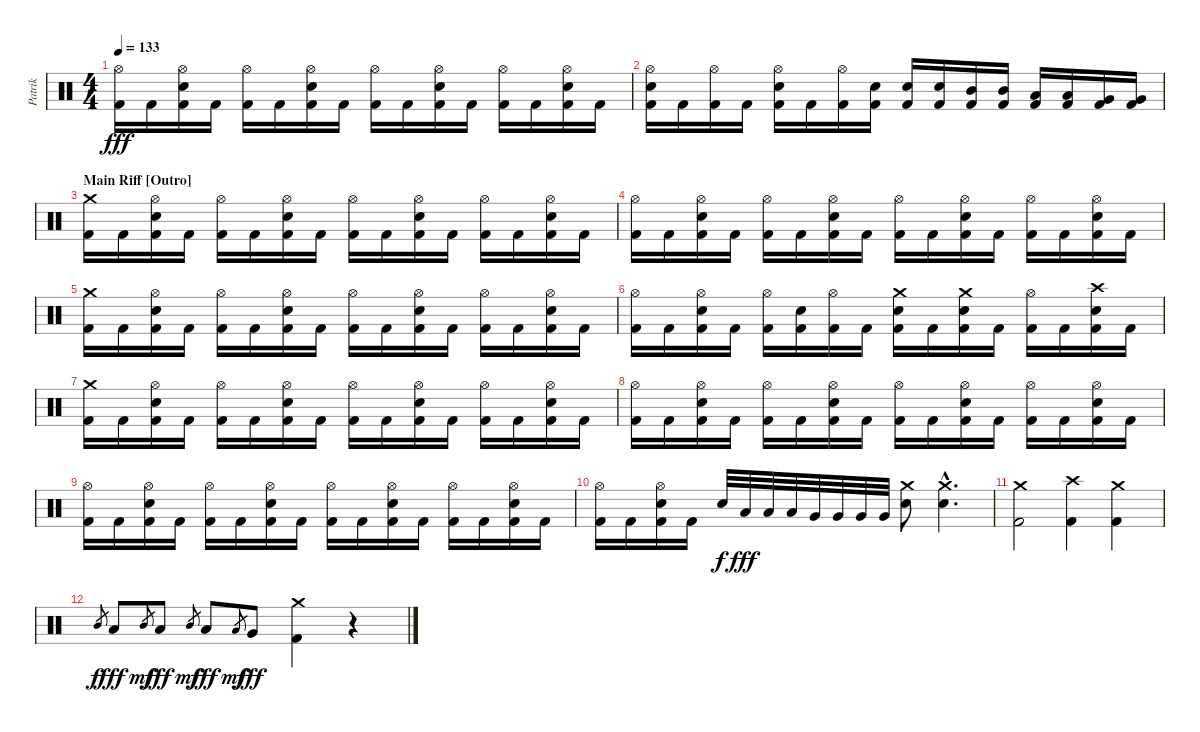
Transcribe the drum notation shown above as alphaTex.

\track ("Patrik" "Patrik") {instrument percussion}
\staff {score}
\articulation defaults
\ts (4 4)
\tempo 133
\clef neutral
\ks c
("Hi-Hat (open)" "Kick (hit) 2").16{dy fff} "Kick (hit) 2".16 ("Hi-Hat (open)" "Electric Snare (hit)" "Kick (hit) 2").16 "Kick (hit) 2".16 ("Hi-Hat (open)" "Kick (hit) 2").16 "Kick (hit) 2".16 ("Hi-Hat (open)" "Electric Snare (hit)" "Kick (hit) 2").16 "Kick (hit) 2".16 ("Hi-Hat (open)" "Kick (hit) 2").16 "Kick (hit) 2".16 ("Hi-Hat (open)" "Electric Snare (hit)" "Kick (hit) 2").16 "Kick (hit) 2".16 ("Hi-Hat (open)" "Kick (hit) 2").16 "Kick (hit) 2".16 ("Hi-Hat (open)" "Electric Snare (hit)" "Kick (hit) 2").16 "Kick (hit) 2".16 |
("Hi-Hat (open)" "Electric Snare (hit)" "Kick (hit) 2").16 "Kick (hit) 2".16 ("Hi-Hat (open)" "Kick (hit) 2").16 "Kick (hit) 2".16 ("Hi-Hat (open)" "Electric Snare (hit)" "Kick (hit) 2").16 "Kick (hit) 2".16 ("Hi-Hat (open)" "Kick (hit) 2").16 ("Electric Snare (hit)" "Kick (hit) 2").16 ("Electric Snare (hit)" "Kick (hit) 2").16 ("Electric Snare (hit)" "Kick (hit) 2").16 ("Mid Tom (hit)" "Kick (hit) 2").16 ("Mid Tom (hit)" "Kick (hit) 2").16 ("Low Tom (hit)" "Kick (hit) 2").16 ("Low Tom (hit)" "Kick (hit) 2").16 ("Very Low Tom (hit)" "Kick (hit) 2").16 ("Very Low Tom (hit)" "Kick (hit) 2").16 |
\section ("" "Main Riff [Outro]")
("Crash medium (hit)" "Kick (hit) 2").16 "Kick (hit) 2".16 ("Hi-Hat (open)" "Electric Snare (hit)" "Kick (hit) 2").16 "Kick (hit) 2".16 ("Hi-Hat (open)" "Kick (hit) 2").16 "Kick (hit) 2".16 ("Hi-Hat (open)" "Electric Snare (hit)" "Kick (hit) 2").16 "Kick (hit) 2".16 ("Hi-Hat (open)" "Kick (hit) 2").16 "Kick (hit) 2".16 ("Hi-Hat (open)" "Electric Snare (hit)" "Kick (hit) 2").16 "Kick (hit) 2".16 ("Hi-Hat (open)" "Kick (hit) 2").16 "Kick (hit) 2".16 ("Hi-Hat (open)" "Electric Snare (hit)" "Kick (hit) 2").16 "Kick (hit) 2".16 |
("Hi-Hat (open)" "Kick (hit) 2").16 "Kick (hit) 2".16 ("Hi-Hat (open)" "Electric Snare (hit)" "Kick (hit) 2").16 "Kick (hit) 2".16 ("Hi-Hat (open)" "Kick (hit) 2").16 "Kick (hit) 2".16 ("Hi-Hat (open)" "Electric Snare (hit)" "Kick (hit) 2").16 "Kick (hit) 2".16 ("Hi-Hat (open)" "Kick (hit) 2").16 "Kick (hit) 2".16 ("Hi-Hat (open)" "Electric Snare (hit)" "Kick (hit) 2").16 "Kick (hit) 2".16 ("Hi-Hat (open)" "Kick (hit) 2").16 "Kick (hit) 2".16 ("Hi-Hat (open)" "Electric Snare (hit)" "Kick (hit) 2").16 "Kick (hit) 2".16 |
("Crash medium (hit)" "Kick (hit) 2").16 "Kick (hit) 2".16 ("Hi-Hat (open)" "Electric Snare (hit)" "Kick (hit) 2").16 "Kick (hit) 2".16 ("Hi-Hat (open)" "Kick (hit) 2").16 "Kick (hit) 2".16 ("Hi-Hat (open)" "Electric Snare (hit)" "Kick (hit) 2").16 "Kick (hit) 2".16 ("Hi-Hat (open)" "Kick (hit) 2").16 "Kick (hit) 2".16 ("Hi-Hat (open)" "Electric Snare (hit)" "Kick (hit) 2").16 "Kick (hit) 2".16 ("Hi-Hat (open)" "Kick (hit) 2").16 "Kick (hit) 2".16 ("Hi-Hat (open)" "Electric Snare (hit)" "Kick (hit) 2").16 "Kick (hit) 2".16 |
("Hi-Hat (open)" "Kick (hit) 2").16 "Kick (hit) 2".16 ("Hi-Hat (open)" "Electric Snare (hit)" "Kick (hit) 2").16 "Kick (hit) 2".16 ("Hi-Hat (open)" "Kick (hit) 2").16 ("Electric Snare (hit)" "Kick (hit) 2").16 ("Hi-Hat (open)" "Kick (hit) 2").16 "Kick (hit) 2".16 ("Crash medium (hit)" "Electric Snare (hit)" "Kick (hit) 2").16 "Kick (hit) 2".16 ("Crash medium (hit)" "Electric Snare (hit)" "Kick (hit) 2").16 "Kick (hit) 2".16 ("Hi-Hat (open)" "Kick (hit) 2").16 "Kick (hit) 2".16 ("Crash high (hit)" "Electric Snare (hit)" "Kick (hit) 2").16 "Kick (hit) 2".16 |
("Crash medium (hit)" "Kick (hit) 2").16 "Kick (hit) 2".16 ("Hi-Hat (open)" "Electric Snare (hit)" "Kick (hit) 2").16 "Kick (hit) 2".16 ("Hi-Hat (open)" "Kick (hit) 2").16 "Kick (hit) 2".16 ("Hi-Hat (open)" "Electric Snare (hit)" "Kick (hit) 2").16 "Kick (hit) 2".16 ("Hi-Hat (open)" "Kick (hit) 2").16 "Kick (hit) 2".16 ("Hi-Hat (open)" "Electric Snare (hit)" "Kick (hit) 2").16 "Kick (hit) 2".16 ("Hi-Hat (open)" "Kick (hit) 2").16 "Kick (hit) 2".16 ("Hi-Hat (open)" "Electric Snare (hit)" "Kick (hit) 2").16 "Kick (hit) 2".16 |
("Hi-Hat (open)" "Kick (hit) 2").16 "Kick (hit) 2".16 ("Hi-Hat (open)" "Electric Snare (hit)" "Kick (hit) 2").16 "Kick (hit) 2".16 ("Hi-Hat (open)" "Kick (hit) 2").16 "Kick (hit) 2".16 ("Hi-Hat (open)" "Electric Snare (hit)" "Kick (hit) 2").16 "Kick (hit) 2".16 ("Hi-Hat (open)" "Kick (hit) 2").16 "Kick (hit) 2".16 ("Hi-Hat (open)" "Electric Snare (hit)" "Kick (hit) 2").16 "Kick (hit) 2".16 ("Hi-Hat (open)" "Kick (hit) 2").16 "Kick (hit) 2".16 ("Hi-Hat (open)" "Electric Snare (hit)" "Kick (hit) 2").16 "Kick (hit) 2".16 |
("Hi-Hat (open)" "Kick (hit) 2").16 "Kick (hit) 2".16 ("Hi-Hat (open)" "Electric Snare (hit)" "Kick (hit) 2").16 "Kick (hit) 2".16 ("Hi-Hat (open)" "Kick (hit) 2").16 "Kick (hit) 2".16 ("Hi-Hat (open)" "Electric Snare (hit)" "Kick (hit) 2").16 "Kick (hit) 2".16 ("Hi-Hat (open)" "Kick (hit) 2").16 "Kick (hit) 2".16 ("Hi-Hat (open)" "Electric Snare (hit)" "Kick (hit) 2").16 "Kick (hit) 2".16 ("Hi-Hat (open)" "Kick (hit) 2").16 "Kick (hit) 2".16 ("Hi-Hat (open)" "Electric Snare (hit)" "Kick (hit) 2").16 "Kick (hit) 2".16 |
("Hi-Hat (open)" "Kick (hit) 2").16 "Kick (hit) 2".16 ("Hi-Hat (open)" "Electric Snare (hit)" "Kick (hit) 2").16 "Kick (hit) 2".16 "Electric Snare (hit)".32{dy f} "Low Tom (hit)".32{dy fff} "Low Tom (hit)".32 "Low Tom (hit)".32 "Very Low Tom (hit)".32 "Very Low Tom (hit)".32 "Very Low Tom (hit)".32 "Very Low Tom (hit)".32 ("Crash medium (hit)" "Electric Snare (hit)").8 ("Crash medium (hit)"{hac} "Electric Snare (hit)"{hac}).4{d} |
("Crash medium (hit)" "Kick (hit) 2").2 ("Crash high (hit)" "Kick (hit) 2").4 ("Crash medium (hit)" "Kick (hit) 2").4 |
"Mid Tom (hit)".8{gr dy f} "Low Tom (hit)".8{dy fff} "Mid Tom (hit)".8{gr dy mf} "Low Tom (hit)".8{dy fff} "Mid Tom (hit)".8{gr dy mf} "Low Tom (hit)".8{dy fff} "Low Tom (hit)".8{gr dy mf} "Very Low Tom (hit)".8{dy fff} ("Crash medium (hit)" "Kick (hit) 2").4 r.4
